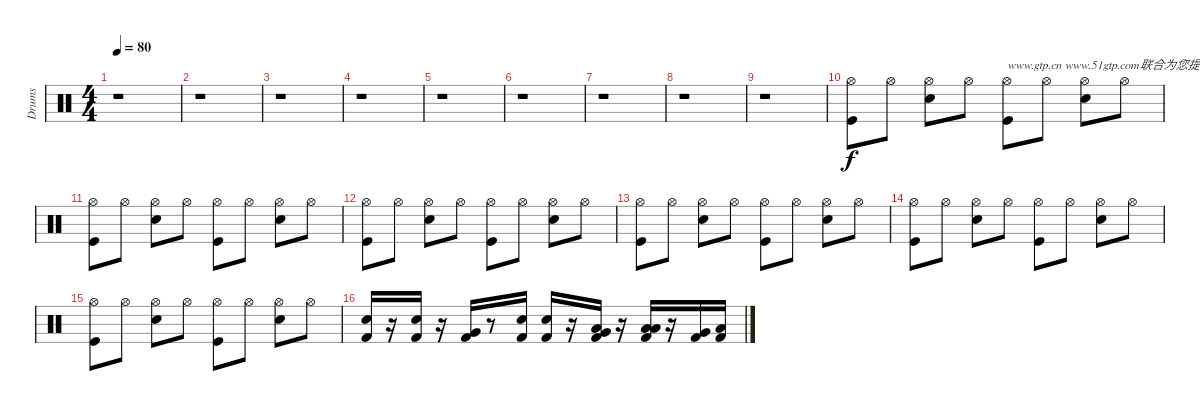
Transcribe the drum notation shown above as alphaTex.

\track ("Drums" "Drums") {instrument percussion}
\staff {score}
\articulation defaults
\ts (4 4)
\tempo 80
\clef neutral
\ks c
r.1{dy f} |
r.1 |
r.1 |
r.1 |
r.1 |
r.1 |
r.1 |
r.1 |
r.1 |
("Hi-Hat (open)" "Kick (hit)").8 "Hi-Hat (open)".8 ("Snare (hit) 2" "Hi-Hat (open)").8 "Hi-Hat (open)".8 ("Hi-Hat (open)" "Kick (hit)").8{txt "www.gtp.cn www.51gtp.com联合为您提供优秀的GTP!"} "Hi-Hat (open)".8 ("Snare (hit) 2" "Hi-Hat (open)").8 "Hi-Hat (open)".8 |
("Hi-Hat (open)" "Kick (hit)").8 "Hi-Hat (open)".8 ("Snare (hit) 2" "Hi-Hat (open)").8 "Hi-Hat (open)".8 ("Hi-Hat (open)" "Kick (hit)").8 "Hi-Hat (open)".8 ("Snare (hit) 2" "Hi-Hat (open)").8 "Hi-Hat (open)".8 |
("Hi-Hat (open)" "Kick (hit)").8 "Hi-Hat (open)".8 ("Snare (hit) 2" "Hi-Hat (open)").8 "Hi-Hat (open)".8 ("Hi-Hat (open)" "Kick (hit)").8 "Hi-Hat (open)".8 ("Snare (hit) 2" "Hi-Hat (open)").8 "Hi-Hat (open)".8 |
("Hi-Hat (open)" "Kick (hit)").8 "Hi-Hat (open)".8 ("Snare (hit) 2" "Hi-Hat (open)").8 "Hi-Hat (open)".8 ("Hi-Hat (open)" "Kick (hit)").8 "Hi-Hat (open)".8 ("Snare (hit) 2" "Hi-Hat (open)").8 "Hi-Hat (open)".8 |
("Hi-Hat (open)" "Kick (hit)").8 "Hi-Hat (open)".8 ("Snare (hit) 2" "Hi-Hat (open)").8 "Hi-Hat (open)".8 ("Hi-Hat (open)" "Kick (hit)").8 "Hi-Hat (open)".8 ("Snare (hit) 2" "Hi-Hat (open)").8 "Hi-Hat (open)".8 |
("Hi-Hat (open)" "Kick (hit)").8 "Hi-Hat (open)".8 ("Snare (hit) 2" "Hi-Hat (open)").8 "Hi-Hat (open)".8 ("Hi-Hat (open)" "Kick (hit)").8 "Hi-Hat (open)".8 ("Snare (hit) 2" "Hi-Hat (open)").8 "Hi-Hat (open)".8 |
("Snare (hit) 2" "Kick (hit) 2").16 r.16 ("Snare (hit) 2" "Kick (hit) 2").16 r.16 ("Very Low Tom (hit)" "Kick (hit) 2").16 r.8 ("Snare (hit) 2" "Kick (hit) 2").16 ("Snare (hit) 2" "Kick (hit) 2").16 r.16 ("Very Low Tom (hit)" "Low Tom (hit)" "Kick (hit) 2").16 r.16 ("Low Floor Tom (hit)" "Low Tom (hit)" "Kick (hit) 2").16 r.16 ("Very Low Tom (hit)" "Kick (hit) 2").16 ("Low Floor Tom (hit)" "Kick (hit) 2").16
